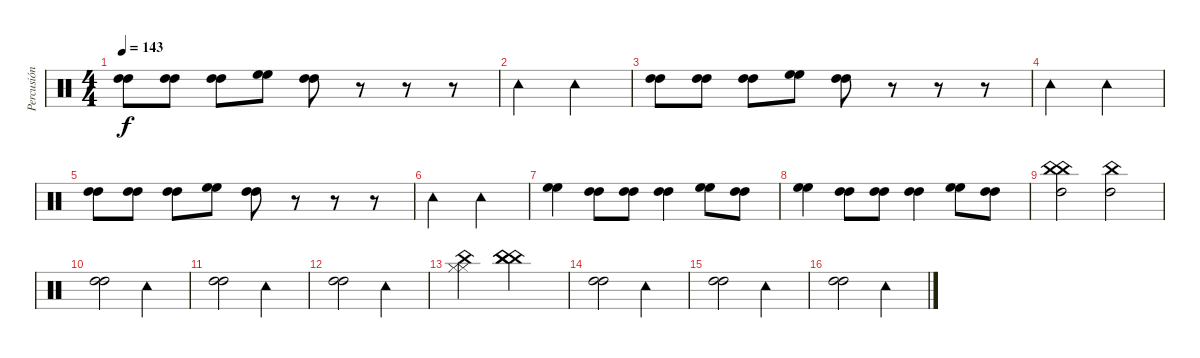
\track ("Percusión" "Percusión") {instrument percussion}
\staff {score}
\articulation defaults
\ts (4 4)
\tempo 143
\clef neutral
\ks c
("High Tom (hit)" "High Tom (hit)").8{dy f} ("High Tom (hit)" "High Tom (hit)").8 ("High Tom (hit)" "High Tom (hit)").8 ("High Floor Tom (hit)" "High Floor Tom (hit)").8 ("High Tom (hit)" "High Tom (hit)").8 r.8 r.8 r.8 |
"Tambourine (hit)".2 "Tambourine (hit)".2 |
("High Tom (hit)" "High Tom (hit)").8 ("High Tom (hit)" "High Tom (hit)").8 ("High Tom (hit)" "High Tom (hit)").8 ("High Floor Tom (hit)" "High Floor Tom (hit)").8 ("High Tom (hit)" "High Tom (hit)").8 r.8 r.8 r.8 |
"Tambourine (hit)".2 "Tambourine (hit)".2 |
("High Tom (hit)" "High Tom (hit)").8 ("High Tom (hit)" "High Tom (hit)").8 ("High Tom (hit)" "High Tom (hit)").8 ("High Floor Tom (hit)" "High Floor Tom (hit)").8 ("High Tom (hit)" "High Tom (hit)").8 r.8 r.8 r.8 |
"Tambourine (hit)".2 "Tambourine (hit)".2 |
("High Floor Tom (hit)" "High Floor Tom (hit)").4 ("High Tom (hit)" "High Tom (hit)").8 ("High Tom (hit)" "High Tom (hit)").8 ("High Tom (hit)" "High Tom (hit)").4 ("High Floor Tom (hit)" "High Floor Tom (hit)").8 ("High Tom (hit)" "High Tom (hit)").8 |
("High Floor Tom (hit)" "High Floor Tom (hit)").4 ("High Tom (hit)" "High Tom (hit)").8 ("High Tom (hit)" "High Tom (hit)").8 ("High Tom (hit)" "High Tom (hit)").4 ("High Floor Tom (hit)" "High Floor Tom (hit)").8 ("High Tom (hit)" "High Tom (hit)").8 |
("China (hit)" "High Tom (hit)" "China (hit)").2 ("China (hit)" "High Tom (hit)").2 |
("High Tom (hit)" "High Tom (hit)").2 "Tambourine (hit)".2 |
("High Tom (hit)" "High Tom (hit)").2 "Tambourine (hit)".2 |
("High Tom (hit)" "High Tom (hit)").2 "Tambourine (hit)".2 |
("Hi-Hat (closed)" "Hi-Hat (closed)" "China (hit)").2 ("China (hit)" "China (hit)" "China (hit)").2 |
("High Tom (hit)" "High Tom (hit)").2 "Tambourine (hit)".2 |
("High Tom (hit)" "High Tom (hit)").2 "Tambourine (hit)".2 |
("High Tom (hit)" "High Tom (hit)").2 "Tambourine (hit)".2
